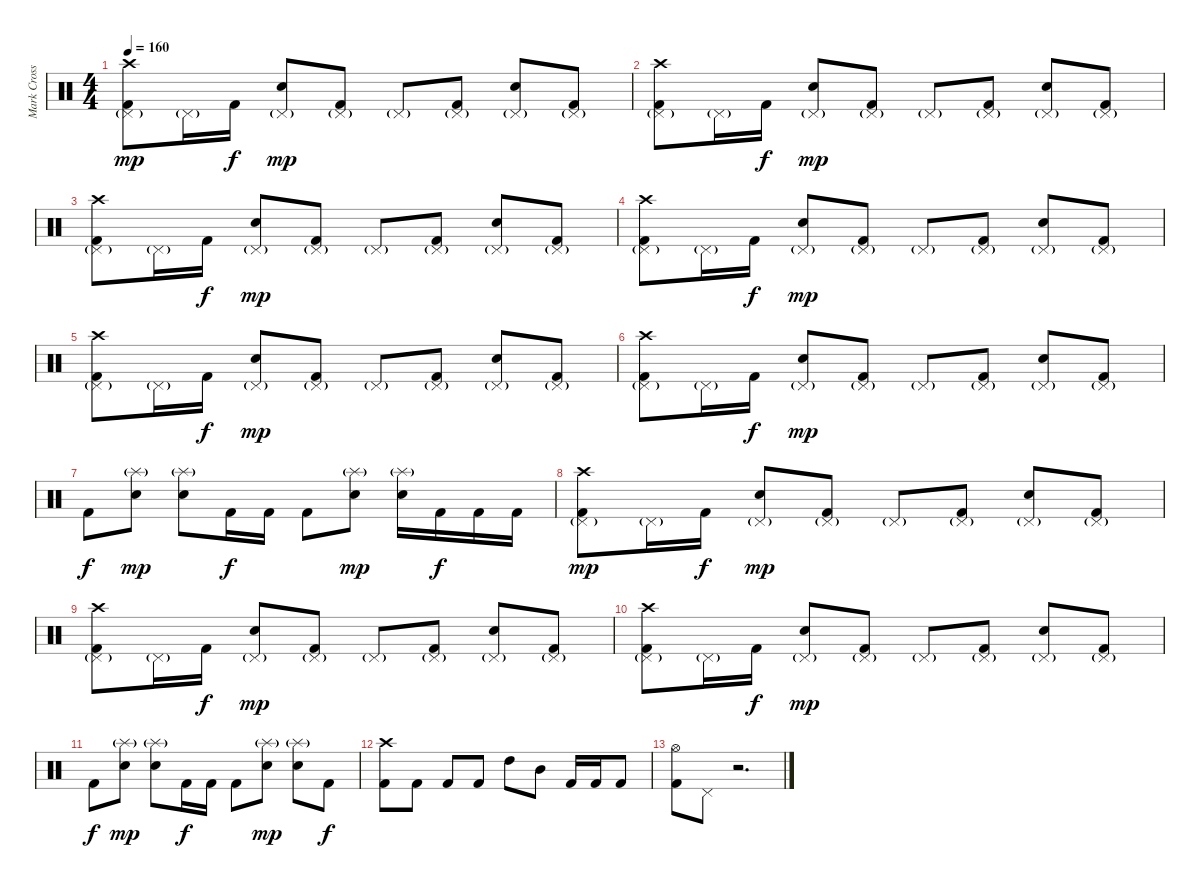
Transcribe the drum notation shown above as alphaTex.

\track ("Mark Cross" "Mark Cross") {instrument percussion}
\staff {score}
\articulation defaults
\ts (4 4)
\tempo 160
\clef neutral
\ks aminor
("Crash high (hit)" "Pedal Hi-Hat (hit)"{g} "Kick (hit) 2").8{dy mp} "Pedal Hi-Hat (hit)"{g}.16 "Kick (hit) 2".16{dy f} ("Pedal Hi-Hat (hit)"{g} "Electric Snare (hit)").8{dy mp} ("Pedal Hi-Hat (hit)"{g} "Kick (hit) 2").8 "Pedal Hi-Hat (hit)"{g}.8 ("Pedal Hi-Hat (hit)"{g} "Kick (hit) 2").8 ("Pedal Hi-Hat (hit)"{g} "Electric Snare (hit)").8 ("Pedal Hi-Hat (hit)"{g} "Kick (hit) 2").8 |
("Crash high (hit)" "Pedal Hi-Hat (hit)"{g} "Kick (hit) 2").8 "Pedal Hi-Hat (hit)"{g}.16 "Kick (hit) 2".16{dy f} ("Pedal Hi-Hat (hit)"{g} "Electric Snare (hit)").8{dy mp} ("Pedal Hi-Hat (hit)"{g} "Kick (hit) 2").8 "Pedal Hi-Hat (hit)"{g}.8 ("Pedal Hi-Hat (hit)"{g} "Kick (hit) 2").8 ("Pedal Hi-Hat (hit)"{g} "Electric Snare (hit)").8 ("Pedal Hi-Hat (hit)"{g} "Kick (hit) 2").8 |
("Crash high (hit)" "Pedal Hi-Hat (hit)"{g} "Kick (hit) 2").8 "Pedal Hi-Hat (hit)"{g}.16 "Kick (hit) 2".16{dy f} ("Pedal Hi-Hat (hit)"{g} "Electric Snare (hit)").8{dy mp} ("Pedal Hi-Hat (hit)"{g} "Kick (hit) 2").8 "Pedal Hi-Hat (hit)"{g}.8 ("Pedal Hi-Hat (hit)"{g} "Kick (hit) 2").8 ("Pedal Hi-Hat (hit)"{g} "Electric Snare (hit)").8 ("Pedal Hi-Hat (hit)"{g} "Kick (hit) 2").8 |
("Crash high (hit)" "Pedal Hi-Hat (hit)"{g} "Kick (hit) 2").8 "Pedal Hi-Hat (hit)"{g}.16 "Kick (hit) 2".16{dy f} ("Pedal Hi-Hat (hit)"{g} "Electric Snare (hit)").8{dy mp} ("Pedal Hi-Hat (hit)"{g} "Kick (hit) 2").8 "Pedal Hi-Hat (hit)"{g}.8 ("Pedal Hi-Hat (hit)"{g} "Kick (hit) 2").8 ("Pedal Hi-Hat (hit)"{g} "Electric Snare (hit)").8 ("Pedal Hi-Hat (hit)"{g} "Kick (hit) 2").8 |
("Crash high (hit)" "Pedal Hi-Hat (hit)"{g} "Kick (hit) 2").8 "Pedal Hi-Hat (hit)"{g}.16 "Kick (hit) 2".16{dy f} ("Pedal Hi-Hat (hit)"{g} "Electric Snare (hit)").8{dy mp} ("Pedal Hi-Hat (hit)"{g} "Kick (hit) 2").8 "Pedal Hi-Hat (hit)"{g}.8 ("Pedal Hi-Hat (hit)"{g} "Kick (hit) 2").8 ("Pedal Hi-Hat (hit)"{g} "Electric Snare (hit)").8 ("Pedal Hi-Hat (hit)"{g} "Kick (hit) 2").8 |
("Crash high (hit)" "Pedal Hi-Hat (hit)"{g} "Kick (hit) 2").8 "Pedal Hi-Hat (hit)"{g}.16 "Kick (hit) 2".16{dy f} ("Pedal Hi-Hat (hit)"{g} "Electric Snare (hit)").8{dy mp} ("Pedal Hi-Hat (hit)"{g} "Kick (hit) 2").8 "Pedal Hi-Hat (hit)"{g}.8 ("Pedal Hi-Hat (hit)"{g} "Kick (hit) 2").8 ("Pedal Hi-Hat (hit)"{g} "Electric Snare (hit)").8 ("Pedal Hi-Hat (hit)"{g} "Kick (hit) 2").8 |
"Kick (hit) 2".8{dy f} ("Splash (hit)"{g} "Electric Snare (hit)").8{dy mp} ("Splash (hit)"{g} "Electric Snare (hit)").8 "Kick (hit) 2".16{dy f} "Kick (hit) 2".16 "Kick (hit) 2".8 ("Splash (hit)"{g} "Electric Snare (hit)").8{dy mp} ("Splash (hit)"{g} "Electric Snare (hit)").16 "Kick (hit) 2".16{dy f} "Kick (hit) 2".16 "Kick (hit) 2".16 |
("Crash high (hit)" "Pedal Hi-Hat (hit)"{g} "Kick (hit) 2").8{dy mp} "Pedal Hi-Hat (hit)"{g}.16 "Kick (hit) 2".16{dy f} ("Pedal Hi-Hat (hit)"{g} "Electric Snare (hit)").8{dy mp} ("Pedal Hi-Hat (hit)"{g} "Kick (hit) 2").8 "Pedal Hi-Hat (hit)"{g}.8 ("Pedal Hi-Hat (hit)"{g} "Kick (hit) 2").8 ("Pedal Hi-Hat (hit)"{g} "Electric Snare (hit)").8 ("Pedal Hi-Hat (hit)"{g} "Kick (hit) 2").8 |
("Crash high (hit)" "Pedal Hi-Hat (hit)"{g} "Kick (hit) 2").8 "Pedal Hi-Hat (hit)"{g}.16 "Kick (hit) 2".16{dy f} ("Pedal Hi-Hat (hit)"{g} "Electric Snare (hit)").8{dy mp} ("Pedal Hi-Hat (hit)"{g} "Kick (hit) 2").8 "Pedal Hi-Hat (hit)"{g}.8 ("Pedal Hi-Hat (hit)"{g} "Kick (hit) 2").8 ("Pedal Hi-Hat (hit)"{g} "Electric Snare (hit)").8 ("Pedal Hi-Hat (hit)"{g} "Kick (hit) 2").8 |
("Crash high (hit)" "Pedal Hi-Hat (hit)"{g} "Kick (hit) 2").8 "Pedal Hi-Hat (hit)"{g}.16 "Kick (hit) 2".16{dy f} ("Pedal Hi-Hat (hit)"{g} "Electric Snare (hit)").8{dy mp} ("Pedal Hi-Hat (hit)"{g} "Kick (hit) 2").8 "Pedal Hi-Hat (hit)"{g}.8 ("Pedal Hi-Hat (hit)"{g} "Kick (hit) 2").8 ("Pedal Hi-Hat (hit)"{g} "Electric Snare (hit)").8 ("Pedal Hi-Hat (hit)"{g} "Kick (hit) 2").8 |
"Kick (hit) 2".8{dy f} ("Splash (hit)"{g} "Electric Snare (hit)").8{dy mp} ("Splash (hit)"{g} "Electric Snare (hit)").8 "Kick (hit) 2".16{dy f} "Kick (hit) 2".16 "Kick (hit) 2".8 ("Splash (hit)"{g} "Electric Snare (hit)").8{dy mp} ("Splash (hit)"{g} "Electric Snare (hit)").8 "Kick (hit) 2".8{dy f} |
("Crash high (hit)" "Kick (hit) 2").8 "Kick (hit) 2".8 "Kick (hit) 2".8 "Kick (hit) 2".8 "High Tom (hit)".8 "Mid Tom (hit)".8 "Kick (hit) 2".16 "Kick (hit) 2".16 "Kick (hit) 2".8 |
("Hi-Hat (open)" "Kick (hit) 2").8 "Pedal Hi-Hat (hit)".8 r.2{d}
